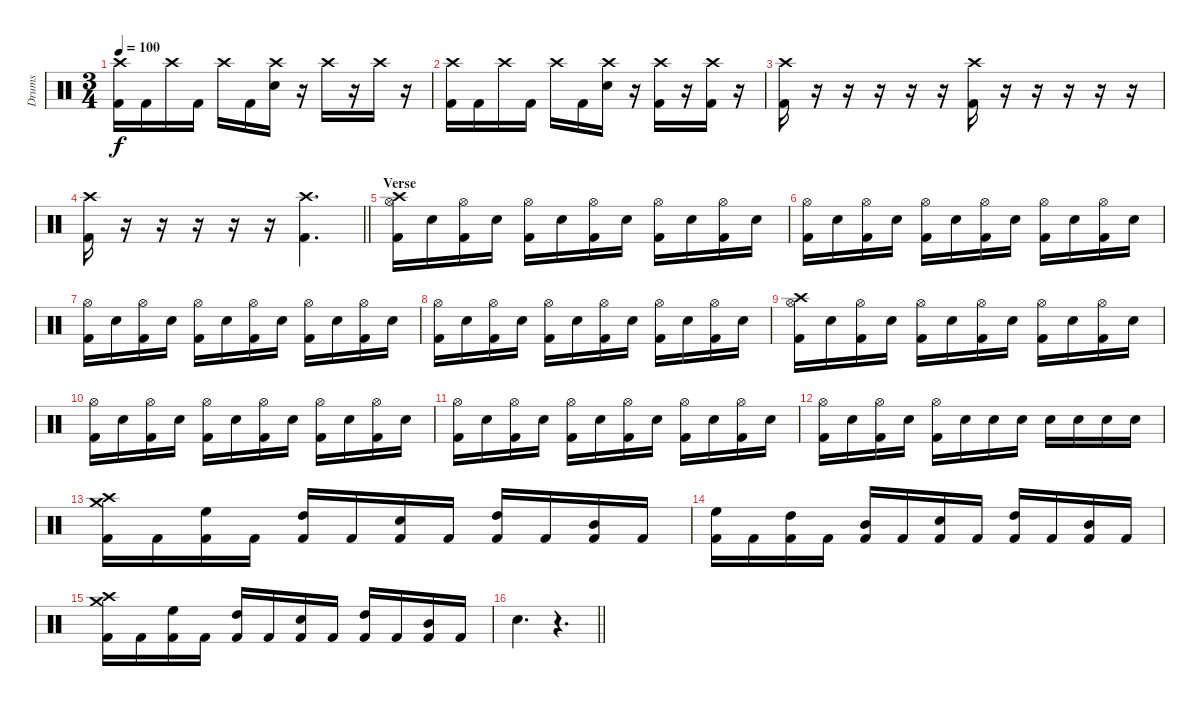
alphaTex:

\track ("Drums" "Drums") {instrument percussion}
\staff {score}
\articulation defaults
\ts (3 4)
\tempo 100
\clef neutral
\ks c
("Crash high (hit)" "Kick (hit) 2").16{dy f} "Kick (hit) 2".16 "Crash high (hit)".16 "Kick (hit) 2".16 "Crash high (hit)".16 "Kick (hit) 2".16 ("Crash high (hit)" "Electric Snare (hit)").16 r.16 "Crash high (hit)".16 r.16 "Crash high (hit)".16 r.16 |
("Crash high (hit)" "Kick (hit) 2").16 "Kick (hit) 2".16 "Crash high (hit)".16 "Kick (hit) 2".16 "Crash high (hit)".16 "Kick (hit) 2".16 ("Crash high (hit)" "Electric Snare (hit)").16 r.16 ("Crash high (hit)" "Kick (hit) 2").16 r.16 ("Crash high (hit)" "Kick (hit) 2").16 r.16 |
("Crash high (hit)" "Kick (hit) 2").16 r.16 r.16 r.16 r.16 r.16 ("Crash high (hit)" "Kick (hit) 2").16 r.16 r.16 r.16 r.16 r.16 |
\barLineRight lightlight
("Crash high (hit)" "Kick (hit) 2").16 r.16 r.16 r.16 r.16 r.16 ("Crash high (hit)" "Kick (hit) 2").4{d} |
\section ("" "Verse")
("Crash high (hit)" "Hi-Hat (open)" "Kick (hit) 2").16 "Electric Snare (hit)".16 ("Hi-Hat (open)" "Kick (hit) 2").16 "Electric Snare (hit)".16 ("Hi-Hat (open)" "Kick (hit) 2").16 "Electric Snare (hit)".16 ("Hi-Hat (open)" "Kick (hit) 2").16 "Electric Snare (hit)".16 ("Hi-Hat (open)" "Kick (hit) 2").16 "Electric Snare (hit)".16 ("Hi-Hat (open)" "Kick (hit) 2").16 "Electric Snare (hit)".16 |
("Hi-Hat (open)" "Kick (hit) 2").16 "Electric Snare (hit)".16 ("Hi-Hat (open)" "Kick (hit) 2").16 "Electric Snare (hit)".16 ("Hi-Hat (open)" "Kick (hit) 2").16 "Electric Snare (hit)".16 ("Hi-Hat (open)" "Kick (hit) 2").16 "Electric Snare (hit)".16 ("Hi-Hat (open)" "Kick (hit) 2").16 "Electric Snare (hit)".16 ("Hi-Hat (open)" "Kick (hit) 2").16 "Electric Snare (hit)".16 |
("Hi-Hat (open)" "Kick (hit) 2").16 "Electric Snare (hit)".16 ("Hi-Hat (open)" "Kick (hit) 2").16 "Electric Snare (hit)".16 ("Hi-Hat (open)" "Kick (hit) 2").16 "Electric Snare (hit)".16 ("Hi-Hat (open)" "Kick (hit) 2").16 "Electric Snare (hit)".16 ("Hi-Hat (open)" "Kick (hit) 2").16 "Electric Snare (hit)".16 ("Hi-Hat (open)" "Kick (hit) 2").16 "Electric Snare (hit)".16 |
("Hi-Hat (open)" "Kick (hit) 2").16 "Electric Snare (hit)".16 ("Hi-Hat (open)" "Kick (hit) 2").16 "Electric Snare (hit)".16 ("Hi-Hat (open)" "Kick (hit) 2").16 "Electric Snare (hit)".16 ("Hi-Hat (open)" "Kick (hit) 2").16 "Electric Snare (hit)".16 ("Hi-Hat (open)" "Kick (hit) 2").16 "Electric Snare (hit)".16 ("Hi-Hat (open)" "Kick (hit) 2").16 "Electric Snare (hit)".16 |
("Crash high (hit)" "Hi-Hat (open)" "Kick (hit) 2").16 "Electric Snare (hit)".16 ("Hi-Hat (open)" "Kick (hit) 2").16 "Electric Snare (hit)".16 ("Hi-Hat (open)" "Kick (hit) 2").16 "Electric Snare (hit)".16 ("Hi-Hat (open)" "Kick (hit) 2").16 "Electric Snare (hit)".16 ("Hi-Hat (open)" "Kick (hit) 2").16 "Electric Snare (hit)".16 ("Hi-Hat (open)" "Kick (hit) 2").16 "Electric Snare (hit)".16 |
("Hi-Hat (open)" "Kick (hit) 2").16 "Electric Snare (hit)".16 ("Hi-Hat (open)" "Kick (hit) 2").16 "Electric Snare (hit)".16 ("Hi-Hat (open)" "Kick (hit) 2").16 "Electric Snare (hit)".16 ("Hi-Hat (open)" "Kick (hit) 2").16 "Electric Snare (hit)".16 ("Hi-Hat (open)" "Kick (hit) 2").16 "Electric Snare (hit)".16 ("Hi-Hat (open)" "Kick (hit) 2").16 "Electric Snare (hit)".16 |
("Hi-Hat (open)" "Kick (hit) 2").16 "Electric Snare (hit)".16 ("Hi-Hat (open)" "Kick (hit) 2").16 "Electric Snare (hit)".16 ("Hi-Hat (open)" "Kick (hit) 2").16 "Electric Snare (hit)".16 ("Hi-Hat (open)" "Kick (hit) 2").16 "Electric Snare (hit)".16 ("Hi-Hat (open)" "Kick (hit) 2").16 "Electric Snare (hit)".16 ("Hi-Hat (open)" "Kick (hit) 2").16 "Electric Snare (hit)".16 |
("Hi-Hat (open)" "Kick (hit) 2").16 "Electric Snare (hit)".16 ("Hi-Hat (open)" "Kick (hit) 2").16 "Electric Snare (hit)".16 ("Hi-Hat (open)" "Kick (hit) 2").16 "Electric Snare (hit)".16 "Electric Snare (hit)".16 "Electric Snare (hit)".16 "Electric Snare (hit)".16 "Electric Snare (hit)".16 "Electric Snare (hit)".16 "Electric Snare (hit)".16 |
("Crash medium (hit)" "Crash high (hit)" "Kick (hit) 2").16 "Kick (hit) 2".16 ("High Floor Tom (hit)" "Kick (hit) 2").16 "Kick (hit) 2".16 ("High Tom (hit)" "Kick (hit) 2").16 "Kick (hit) 2".16 ("Electric Snare (hit)" "Kick (hit) 2").16 "Kick (hit) 2".16 ("High Tom (hit)" "Kick (hit) 2").16 "Kick (hit) 2".16 ("Mid Tom (hit)" "Kick (hit) 2").16 "Kick (hit) 2".16 |
("High Floor Tom (hit)" "Kick (hit) 2").16 "Kick (hit) 2".16 ("High Tom (hit)" "Kick (hit) 2").16 "Kick (hit) 2".16 ("Mid Tom (hit)" "Kick (hit) 2").16 "Kick (hit) 2".16 ("Electric Snare (hit)" "Kick (hit) 2").16 "Kick (hit) 2".16 ("High Tom (hit)" "Kick (hit) 2").16 "Kick (hit) 2".16 ("Mid Tom (hit)" "Kick (hit) 2").16 "Kick (hit) 2".16 |
("Crash medium (hit)" "Crash high (hit)" "Kick (hit) 2").16 "Kick (hit) 2".16 ("High Floor Tom (hit)" "Kick (hit) 2").16 "Kick (hit) 2".16 ("High Tom (hit)" "Kick (hit) 2").16 "Kick (hit) 2".16 ("Electric Snare (hit)" "Kick (hit) 2").16 "Kick (hit) 2".16 ("High Tom (hit)" "Kick (hit) 2").16 "Kick (hit) 2".16 ("Mid Tom (hit)" "Kick (hit) 2").16 "Kick (hit) 2".16 |
\barLineRight lightlight "Electric Snare (hit)".4{d}
r.4{d}
